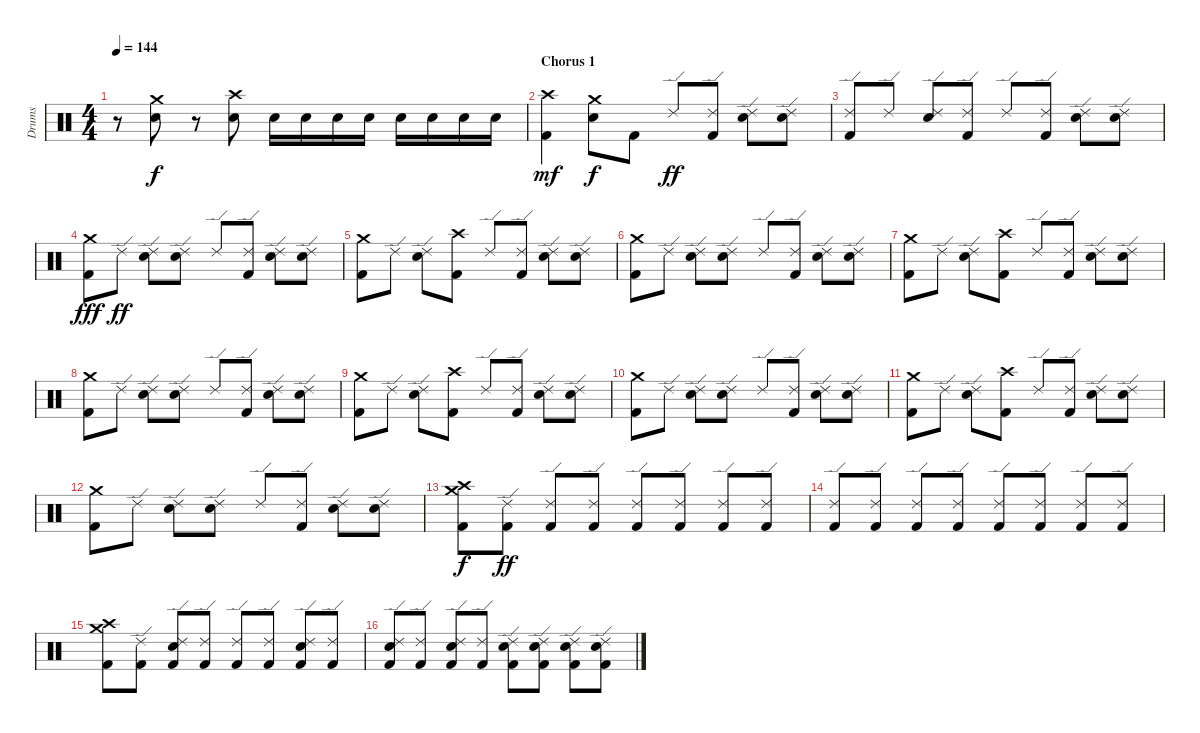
\track ("Drums" "Drums") {instrument percussion}
\staff {score}
\articulation defaults
\ts (4 4)
\tempo 144
\clef neutral
\ks c
r.8{dy f} ("Crash medium (hit)" "Electric Snare (hit)").8 r.8 ("Crash high (hit)" "Electric Snare (hit)").8 "Electric Snare (hit)".16 "Electric Snare (hit)".16 "Electric Snare (hit)".16 "Electric Snare (hit)".16 "Electric Snare (hit)".16 "Electric Snare (hit)".16 "Electric Snare (hit)".16 "Electric Snare (hit)".16 |
\section ("" "Chorus 1")
("Crash high (hit)" "Kick (hit) 2").4{dy mf} ("Crash medium (hit)" "Electric Snare (hit)").8{dy f} "Kick (hit) 2".8 "Ride (edge) 2".8{dy ff} ("Ride (edge) 2" "Kick (hit) 2").8 ("Ride (edge) 2" "Electric Snare (hit)").8 ("Ride (edge) 2" "Electric Snare (hit)").8 |
("Ride (edge) 2" "Kick (hit) 2").8 "Ride (edge) 2".8 ("Ride (edge) 2" "Electric Snare (hit)").8 ("Ride (edge) 2" "Kick (hit) 2").8 "Ride (edge) 2".8 ("Ride (edge) 2" "Kick (hit) 2").8 ("Ride (edge) 2" "Electric Snare (hit)").8 ("Ride (edge) 2" "Electric Snare (hit)").8 |
("Crash medium (hit)" "Kick (hit) 2").8{dy fff} "Ride (edge) 2".8{dy ff} ("Ride (edge) 2" "Electric Snare (hit)").8 ("Ride (edge) 2" "Electric Snare (hit)").8 "Ride (edge) 2".8 ("Ride (edge) 2" "Kick (hit) 2").8 ("Ride (edge) 2" "Electric Snare (hit)").8 ("Ride (edge) 2" "Electric Snare (hit)").8 |
("Crash medium (hit)" "Kick (hit) 2").8 "Ride (edge) 2".8 ("Ride (edge) 2" "Electric Snare (hit)").8 ("Crash high (hit)" "Kick (hit) 2").8 "Ride (edge) 2".8 ("Ride (edge) 2" "Kick (hit) 2").8 ("Ride (edge) 2" "Electric Snare (hit)").8 ("Ride (edge) 2" "Electric Snare (hit)").8 |
("Crash medium (hit)" "Kick (hit) 2").8 "Ride (edge) 2".8 ("Ride (edge) 2" "Electric Snare (hit)").8 ("Ride (edge) 2" "Electric Snare (hit)").8 "Ride (edge) 2".8 ("Ride (edge) 2" "Kick (hit) 2").8 ("Ride (edge) 2" "Electric Snare (hit)").8 ("Ride (edge) 2" "Electric Snare (hit)").8 |
("Crash medium (hit)" "Kick (hit) 2").8 "Ride (edge) 2".8 ("Ride (edge) 2" "Electric Snare (hit)").8 ("Crash high (hit)" "Kick (hit) 2").8 "Ride (edge) 2".8 ("Ride (edge) 2" "Kick (hit) 2").8 ("Ride (edge) 2" "Electric Snare (hit)").8 ("Ride (edge) 2" "Electric Snare (hit)").8 |
("Crash medium (hit)" "Kick (hit) 2").8 "Ride (edge) 2".8 ("Ride (edge) 2" "Electric Snare (hit)").8 ("Ride (edge) 2" "Electric Snare (hit)").8 "Ride (edge) 2".8 ("Ride (edge) 2" "Kick (hit) 2").8 ("Ride (edge) 2" "Electric Snare (hit)").8 ("Ride (edge) 2" "Electric Snare (hit)").8 |
("Crash medium (hit)" "Kick (hit) 2").8 "Ride (edge) 2".8 ("Ride (edge) 2" "Electric Snare (hit)").8 ("Crash high (hit)" "Kick (hit) 2").8 "Ride (edge) 2".8 ("Ride (edge) 2" "Kick (hit) 2").8 ("Ride (edge) 2" "Electric Snare (hit)").8 ("Ride (edge) 2" "Electric Snare (hit)").8 |
("Crash medium (hit)" "Kick (hit) 2").8 "Ride (edge) 2".8 ("Ride (edge) 2" "Electric Snare (hit)").8 ("Ride (edge) 2" "Electric Snare (hit)").8 "Ride (edge) 2".8 ("Ride (edge) 2" "Kick (hit) 2").8 ("Ride (edge) 2" "Electric Snare (hit)").8 ("Ride (edge) 2" "Electric Snare (hit)").8 |
("Crash medium (hit)" "Kick (hit) 2").8 "Ride (edge) 2".8 ("Ride (edge) 2" "Electric Snare (hit)").8 ("Crash high (hit)" "Kick (hit) 2").8 "Ride (edge) 2".8 ("Ride (edge) 2" "Kick (hit) 2").8 ("Ride (edge) 2" "Electric Snare (hit)").8 ("Ride (edge) 2" "Electric Snare (hit)").8 |
("Crash medium (hit)" "Kick (hit) 2").8 "Ride (edge) 2".8 ("Ride (edge) 2" "Electric Snare (hit)").8 ("Ride (edge) 2" "Electric Snare (hit)").8 "Ride (edge) 2".8 ("Ride (edge) 2" "Kick (hit) 2").8 ("Ride (edge) 2" "Electric Snare (hit)").8 ("Ride (edge) 2" "Electric Snare (hit)").8 |
("Crash medium (hit)" "Crash high (hit)" "Kick (hit) 2").8{dy f} ("Ride (edge) 2" "Kick (hit) 2").8{dy ff} ("Ride (edge) 2" "Kick (hit) 2").8 ("Ride (edge) 2" "Kick (hit) 2").8 ("Ride (edge) 2" "Kick (hit) 2").8 ("Ride (edge) 2" "Kick (hit) 2").8 ("Ride (edge) 2" "Kick (hit) 2").8 ("Ride (edge) 2" "Kick (hit) 2").8 |
("Ride (edge) 2" "Kick (hit) 2").8 ("Ride (edge) 2" "Kick (hit) 2").8 ("Ride (edge) 2" "Kick (hit) 2").8 ("Ride (edge) 2" "Kick (hit) 2").8 ("Ride (edge) 2" "Kick (hit) 2").8 ("Ride (edge) 2" "Kick (hit) 2").8 ("Ride (edge) 2" "Kick (hit) 2").8 ("Ride (edge) 2" "Kick (hit) 2").8 |
("Crash medium (hit)" "Crash high (hit)" "Kick (hit) 2").8 ("Ride (edge) 2" "Kick (hit) 2").8 ("Ride (edge) 2" "Electric Snare (hit)" "Kick (hit) 2").8 ("Ride (edge) 2" "Kick (hit) 2").8 ("Ride (edge) 2" "Kick (hit) 2").8 ("Ride (edge) 2" "Kick (hit) 2").8 ("Ride (edge) 2" "Electric Snare (hit)" "Kick (hit) 2").8 ("Ride (edge) 2" "Kick (hit) 2").8 |
("Ride (edge) 2" "Electric Snare (hit)" "Kick (hit) 2").8 ("Ride (edge) 2" "Kick (hit) 2").8 ("Ride (edge) 2" "Electric Snare (hit)" "Kick (hit) 2").8 ("Ride (edge) 2" "Kick (hit) 2").8 ("Ride (edge) 2" "Electric Snare (hit)" "Kick (hit) 2").8 ("Ride (edge) 2" "Electric Snare (hit)" "Kick (hit) 2").8 ("Ride (edge) 2" "Electric Snare (hit)" "Kick (hit) 2").8 ("Ride (edge) 2" "Electric Snare (hit)" "Kick (hit) 2").8
